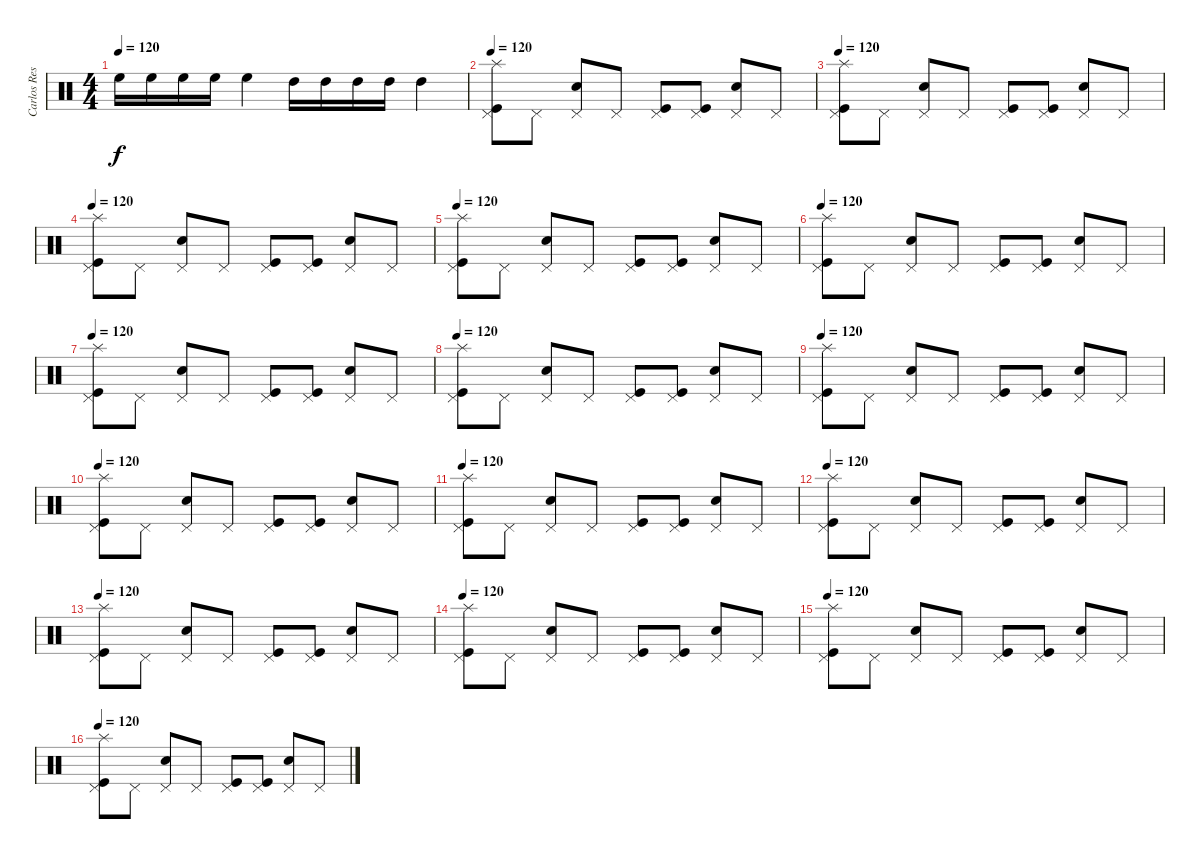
\track ("Carlos Restrepo" "Carlos Res") {instrument percussion}
\staff {score}
\articulation defaults
\ts (4 4)
\tempo 120
\clef neutral
\ks c "High Floor Tom (hit)".16{dy f} "High Floor Tom (hit)".16 "High Floor Tom (hit)".16 "High Floor Tom (hit)".16 "High Floor Tom (hit)".4 "High Tom (hit)".16 "High Tom (hit)".16 "High Tom (hit)".16 "High Tom (hit)".16 "High Tom (hit)".4
|
\tempo 120
("Pedal Hi-Hat (hit)" "Kick (hit)" "Splash (hit)").8 "Pedal Hi-Hat (hit)".8 ("Pedal Hi-Hat (hit)" "Snare (hit) 2").8 "Pedal Hi-Hat (hit)".8 ("Pedal Hi-Hat (hit)" "Kick (hit)").8 ("Pedal Hi-Hat (hit)" "Kick (hit)").8 ("Pedal Hi-Hat (hit)" "Snare (hit) 2").8 "Pedal Hi-Hat (hit)".8 |
\tempo 120
("Pedal Hi-Hat (hit)" "Kick (hit)" "Splash (hit)").8 "Pedal Hi-Hat (hit)".8 ("Pedal Hi-Hat (hit)" "Snare (hit) 2").8 "Pedal Hi-Hat (hit)".8 ("Pedal Hi-Hat (hit)" "Kick (hit)").8 ("Pedal Hi-Hat (hit)" "Kick (hit)").8 ("Pedal Hi-Hat (hit)" "Snare (hit) 2").8 "Pedal Hi-Hat (hit)".8 |
\tempo 120
("Pedal Hi-Hat (hit)" "Kick (hit)" "Splash (hit)").8 "Pedal Hi-Hat (hit)".8 ("Pedal Hi-Hat (hit)" "Snare (hit) 2").8 "Pedal Hi-Hat (hit)".8 ("Pedal Hi-Hat (hit)" "Kick (hit)").8 ("Pedal Hi-Hat (hit)" "Kick (hit)").8 ("Pedal Hi-Hat (hit)" "Snare (hit) 2").8 "Pedal Hi-Hat (hit)".8 |
\tempo 120
("Pedal Hi-Hat (hit)" "Kick (hit)" "Splash (hit)").8 "Pedal Hi-Hat (hit)".8 ("Pedal Hi-Hat (hit)" "Snare (hit) 2").8 "Pedal Hi-Hat (hit)".8 ("Pedal Hi-Hat (hit)" "Kick (hit)").8 ("Pedal Hi-Hat (hit)" "Kick (hit)").8 ("Pedal Hi-Hat (hit)" "Snare (hit) 2").8 "Pedal Hi-Hat (hit)".8 |
\tempo 120
("Pedal Hi-Hat (hit)" "Kick (hit)" "Splash (hit)").8 "Pedal Hi-Hat (hit)".8 ("Pedal Hi-Hat (hit)" "Snare (hit) 2").8 "Pedal Hi-Hat (hit)".8 ("Pedal Hi-Hat (hit)" "Kick (hit)").8 ("Pedal Hi-Hat (hit)" "Kick (hit)").8 ("Pedal Hi-Hat (hit)" "Snare (hit) 2").8 "Pedal Hi-Hat (hit)".8 |
\tempo 120
("Pedal Hi-Hat (hit)" "Kick (hit)" "Splash (hit)").8 "Pedal Hi-Hat (hit)".8 ("Pedal Hi-Hat (hit)" "Snare (hit) 2").8 "Pedal Hi-Hat (hit)".8 ("Pedal Hi-Hat (hit)" "Kick (hit)").8 ("Pedal Hi-Hat (hit)" "Kick (hit)").8 ("Pedal Hi-Hat (hit)" "Snare (hit) 2").8 "Pedal Hi-Hat (hit)".8 |
\tempo 120
("Pedal Hi-Hat (hit)" "Kick (hit)" "Splash (hit)").8 "Pedal Hi-Hat (hit)".8 ("Pedal Hi-Hat (hit)" "Snare (hit) 2").8 "Pedal Hi-Hat (hit)".8 ("Pedal Hi-Hat (hit)" "Kick (hit)").8 ("Pedal Hi-Hat (hit)" "Kick (hit)").8 ("Pedal Hi-Hat (hit)" "Snare (hit) 2").8 "Pedal Hi-Hat (hit)".8 |
\tempo 120
("Pedal Hi-Hat (hit)" "Kick (hit)" "Splash (hit)").8 "Pedal Hi-Hat (hit)".8 ("Pedal Hi-Hat (hit)" "Snare (hit) 2").8 "Pedal Hi-Hat (hit)".8 ("Pedal Hi-Hat (hit)" "Kick (hit)").8 ("Pedal Hi-Hat (hit)" "Kick (hit)").8 ("Pedal Hi-Hat (hit)" "Snare (hit) 2").8 "Pedal Hi-Hat (hit)".8 |
\tempo 120
("Pedal Hi-Hat (hit)" "Kick (hit)" "Splash (hit)").8 "Pedal Hi-Hat (hit)".8 ("Pedal Hi-Hat (hit)" "Snare (hit) 2").8 "Pedal Hi-Hat (hit)".8 ("Pedal Hi-Hat (hit)" "Kick (hit)").8 ("Pedal Hi-Hat (hit)" "Kick (hit)").8 ("Pedal Hi-Hat (hit)" "Snare (hit) 2").8 "Pedal Hi-Hat (hit)".8 |
\tempo 120
("Pedal Hi-Hat (hit)" "Kick (hit)" "Splash (hit)").8 "Pedal Hi-Hat (hit)".8 ("Pedal Hi-Hat (hit)" "Snare (hit) 2").8 "Pedal Hi-Hat (hit)".8 ("Pedal Hi-Hat (hit)" "Kick (hit)").8 ("Pedal Hi-Hat (hit)" "Kick (hit)").8 ("Pedal Hi-Hat (hit)" "Snare (hit) 2").8 "Pedal Hi-Hat (hit)".8 |
\tempo 120
("Pedal Hi-Hat (hit)" "Kick (hit)" "Splash (hit)").8 "Pedal Hi-Hat (hit)".8 ("Pedal Hi-Hat (hit)" "Snare (hit) 2").8 "Pedal Hi-Hat (hit)".8 ("Pedal Hi-Hat (hit)" "Kick (hit)").8 ("Pedal Hi-Hat (hit)" "Kick (hit)").8 ("Pedal Hi-Hat (hit)" "Snare (hit) 2").8 "Pedal Hi-Hat (hit)".8 |
\tempo 120
("Pedal Hi-Hat (hit)" "Kick (hit)" "Splash (hit)").8 "Pedal Hi-Hat (hit)".8 ("Pedal Hi-Hat (hit)" "Snare (hit) 2").8 "Pedal Hi-Hat (hit)".8 ("Pedal Hi-Hat (hit)" "Kick (hit)").8 ("Pedal Hi-Hat (hit)" "Kick (hit)").8 ("Pedal Hi-Hat (hit)" "Snare (hit) 2").8 "Pedal Hi-Hat (hit)".8 |
\tempo 120
("Pedal Hi-Hat (hit)" "Kick (hit)" "Splash (hit)").8 "Pedal Hi-Hat (hit)".8 ("Pedal Hi-Hat (hit)" "Snare (hit) 2").8 "Pedal Hi-Hat (hit)".8 ("Pedal Hi-Hat (hit)" "Kick (hit)").8 ("Pedal Hi-Hat (hit)" "Kick (hit)").8 ("Pedal Hi-Hat (hit)" "Snare (hit) 2").8 "Pedal Hi-Hat (hit)".8 |
\tempo 120
("Pedal Hi-Hat (hit)" "Kick (hit)" "Splash (hit)").8 "Pedal Hi-Hat (hit)".8 ("Pedal Hi-Hat (hit)" "Snare (hit) 2").8 "Pedal Hi-Hat (hit)".8 ("Pedal Hi-Hat (hit)" "Kick (hit)").8 ("Pedal Hi-Hat (hit)" "Kick (hit)").8 ("Pedal Hi-Hat (hit)" "Snare (hit) 2").8 "Pedal Hi-Hat (hit)".8 |
\tempo 120
("Pedal Hi-Hat (hit)" "Kick (hit)" "Splash (hit)").8 "Pedal Hi-Hat (hit)".8 ("Pedal Hi-Hat (hit)" "Snare (hit) 2").8 "Pedal Hi-Hat (hit)".8 ("Pedal Hi-Hat (hit)" "Kick (hit)").8 ("Pedal Hi-Hat (hit)" "Kick (hit)").8 ("Pedal Hi-Hat (hit)" "Snare (hit) 2").8 "Pedal Hi-Hat (hit)".8
